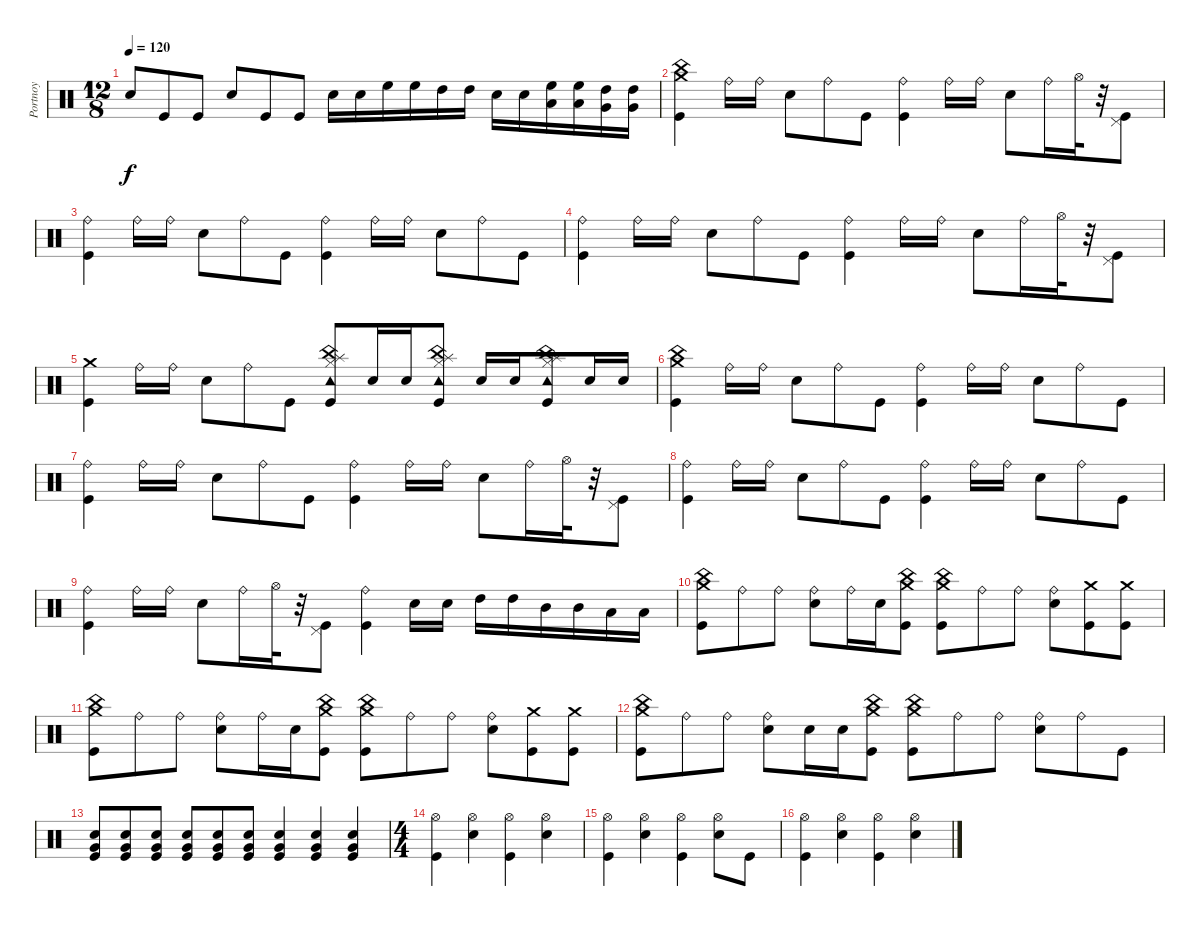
\track ("Portnoy" "Portnoy") {instrument percussion}
\staff {score}
\articulation defaults
\ts (12 8)
\tempo 120
\clef neutral
\ks c "Snare (hit) 2".8{dy f} "Kick (hit)".8 "Kick (hit)".8 "Snare (hit) 2".8 "Kick (hit)".8 "Kick (hit)".8 "Snare (hit) 2".16 "Snare (hit) 2".16 "High Floor Tom (hit)".16 "High Floor Tom (hit)".16 "High Tom (hit)".16 "High Tom (hit)".16 "Snare (hit) 2".16 "Snare (hit) 2".16
("High Floor Tom (hit)" "Low Tom (hit)").16 ("High Floor Tom (hit)" "Low Tom (hit)").16 ("High Tom (hit)" "Very Low Tom (hit)").16 ("High Tom (hit)" "Very Low Tom (hit)").16 |
("Crash medium (hit)" "Kick (hit)" "China (hit)").4 "Ride (bell)".16 "Ride (bell)".16 "Snare (hit) 2".8 "Ride (bell)".8 "Kick (hit)".8 ("Ride (bell)" "Kick (hit)").4 "Ride (bell)".16 "Ride (bell)".16 "Snare (hit) 2".8 "Ride (bell)".16 "Hi-Hat (open)".32 r.32 ("Pedal Hi-Hat (hit)" "Kick (hit)").8 |
("Ride (bell)" "Kick (hit)").4 "Ride (bell)".16 "Ride (bell)".16 "Snare (hit) 2".8 "Ride (bell)".8 "Kick (hit)".8 ("Ride (bell)" "Kick (hit)").4 "Ride (bell)".16 "Ride (bell)".16 "Snare (hit) 2".8 "Ride (bell)".8 "Kick (hit)".8 |
("Ride (bell)" "Kick (hit)").4 "Ride (bell)".16 "Ride (bell)".16 "Snare (hit) 2".8 "Ride (bell)".8 "Kick (hit)".8 ("Ride (bell)" "Kick (hit)").4 "Ride (bell)".16 "Ride (bell)".16 "Snare (hit) 2".8 "Ride (bell)".16 "Hi-Hat (open)".32 r.32 ("Pedal Hi-Hat (hit)" "Kick (hit)").8 |
("Crash medium (hit)" "Kick (hit)").4 "Ride (bell)".16 "Ride (bell)".16 "Snare (hit) 2".8 "Ride (bell)".8 "Kick (hit)".8 ("Hi-Hat (closed)" "Kick (hit)" "Splash (hit)" "Tambourine (hit)" "China (hit)").8 "Snare (hit) 2".16 "Snare (hit) 2".16 ("Hi-Hat (closed)" "Kick (hit)" "Splash (hit)" "Tambourine (hit)" "China (hit)").8 "Snare (hit) 2".16 "Snare (hit) 2".16 ("Hi-Hat (closed)" "Kick (hit)" "Splash (hit)" "Tambourine (hit)" "China (hit)").8 "Snare (hit) 2".16 "Snare (hit) 2".16 |
("China (hit)" "Kick (hit)" "Crash medium (hit)").4 "Ride (bell)".16 "Ride (bell)".16 "Snare (hit) 2".8 "Ride (bell)".8 "Kick (hit)".8 ("Ride (bell)" "Kick (hit)").4 "Ride (bell)".16 "Ride (bell)".16 "Snare (hit) 2".8 "Ride (bell)".8 "Kick (hit)".8 |
("Ride (bell)" "Kick (hit)").4 "Ride (bell)".16 "Ride (bell)".16 "Snare (hit) 2".8 "Ride (bell)".8 "Kick (hit)".8 ("Ride (bell)" "Kick (hit)").4 "Ride (bell)".16 "Ride (bell)".16 "Snare (hit) 2".8 "Ride (bell)".16 "Hi-Hat (open)".32 r.32 ("Pedal Hi-Hat (hit)" "Kick (hit)").8 |
("Ride (bell)" "Kick (hit)").4 "Ride (bell)".16 "Ride (bell)".16 "Snare (hit) 2".8 "Ride (bell)".8 "Kick (hit)".8 ("Ride (bell)" "Kick (hit)").4 "Ride (bell)".16 "Ride (bell)".16 "Snare (hit) 2".8 "Ride (bell)".8 "Kick (hit)".8 |
("Ride (bell)" "Kick (hit)").4 "Ride (bell)".16 "Ride (bell)".16 "Snare (hit) 2".8 "Ride (bell)".16 "Hi-Hat (open)".32 r.32 ("Pedal Hi-Hat (hit)" "Kick (hit)").8 ("Ride (bell)" "Kick (hit)").4 "Snare (hit) 2".16 "Snare (hit) 2".16 "High Tom (hit)".16 "High Tom (hit)".16 "Mid Tom (hit)".16 "Mid Tom (hit)".16 "Low Tom (hit)".16 "Low Tom (hit)".16 |
("Crash medium (hit)" "Kick (hit)" "China (hit)").8 "Ride (bell)".8 "Ride (bell)".8 ("Ride (bell)" "Snare (hit) 2").8 "Ride (bell)".16 "Snare (hit) 2".16 ("Crash medium (hit)" "Kick (hit)" "China (hit)").8 ("Crash medium (hit)" "Kick (hit)" "China (hit)").8 "Ride (bell)".8 "Ride (bell)".8 ("Ride (bell)" "Snare (hit) 2").8 ("Crash medium (hit)" "Kick (hit)").8 ("Crash medium (hit)" "Kick (hit)").8 |
("Crash medium (hit)" "Kick (hit)" "China (hit)").8 "Ride (bell)".8 "Ride (bell)".8 ("Ride (bell)" "Snare (hit) 2").8 "Ride (bell)".16 "Snare (hit) 2".16 ("Crash medium (hit)" "Kick (hit)" "China (hit)").8 ("Crash medium (hit)" "Kick (hit)" "China (hit)").8 "Ride (bell)".8 "Ride (bell)".8 ("Ride (bell)" "Snare (hit) 2").8 ("Crash medium (hit)" "Kick (hit)").8 ("Crash medium (hit)" "Kick (hit)").8 |
("Crash medium (hit)" "Kick (hit)" "China (hit)").8 "Ride (bell)".8 "Ride (bell)".8 ("Ride (bell)" "Snare (hit) 2").8 "Snare (hit) 2".16 "Snare (hit) 2".16 ("Crash medium (hit)" "Kick (hit)" "China (hit)").8 ("Crash medium (hit)" "Kick (hit)" "China (hit)").8 "Ride (bell)".8 "Ride (bell)".8 ("Ride (bell)" "Snare (hit) 2").8 "Ride (bell)".8 "Kick (hit)".8 |
("Snare (hit) 2" "Kick (hit)" "Very Low Tom (hit)").8 ("Snare (hit) 2" "Kick (hit)" "Very Low Tom (hit)").8 ("Snare (hit) 2" "Kick (hit)" "Very Low Tom (hit)").8 ("Snare (hit) 2" "Kick (hit)" "Very Low Tom (hit)").8 ("Snare (hit) 2" "Kick (hit)" "Very Low Tom (hit)").8 ("Snare (hit) 2" "Kick (hit)" "Very Low Tom (hit)").8 ("Snare (hit) 2" "Kick (hit)" "Very Low Tom (hit)").4 ("Snare (hit) 2" "Kick (hit)" "Very Low Tom (hit)").4 ("Snare (hit) 2" "Kick (hit)" "Very Low Tom (hit)").4 |
\ts (4 4)
("Hi-Hat (open)" "Kick (hit)").4 ("Hi-Hat (open)" "Snare (hit) 2").4 ("Hi-Hat (open)" "Kick (hit)").4 ("Hi-Hat (open)" "Snare (hit) 2").4 |
("Hi-Hat (open)" "Kick (hit)").4 ("Hi-Hat (open)" "Snare (hit) 2").4 ("Hi-Hat (open)" "Kick (hit)").4 ("Hi-Hat (open)" "Snare (hit) 2").8 "Kick (hit)".8 |
("Hi-Hat (open)" "Kick (hit)").4 ("Hi-Hat (open)" "Snare (hit) 2").4 ("Hi-Hat (open)" "Kick (hit)").4 ("Hi-Hat (open)" "Snare (hit) 2").4
